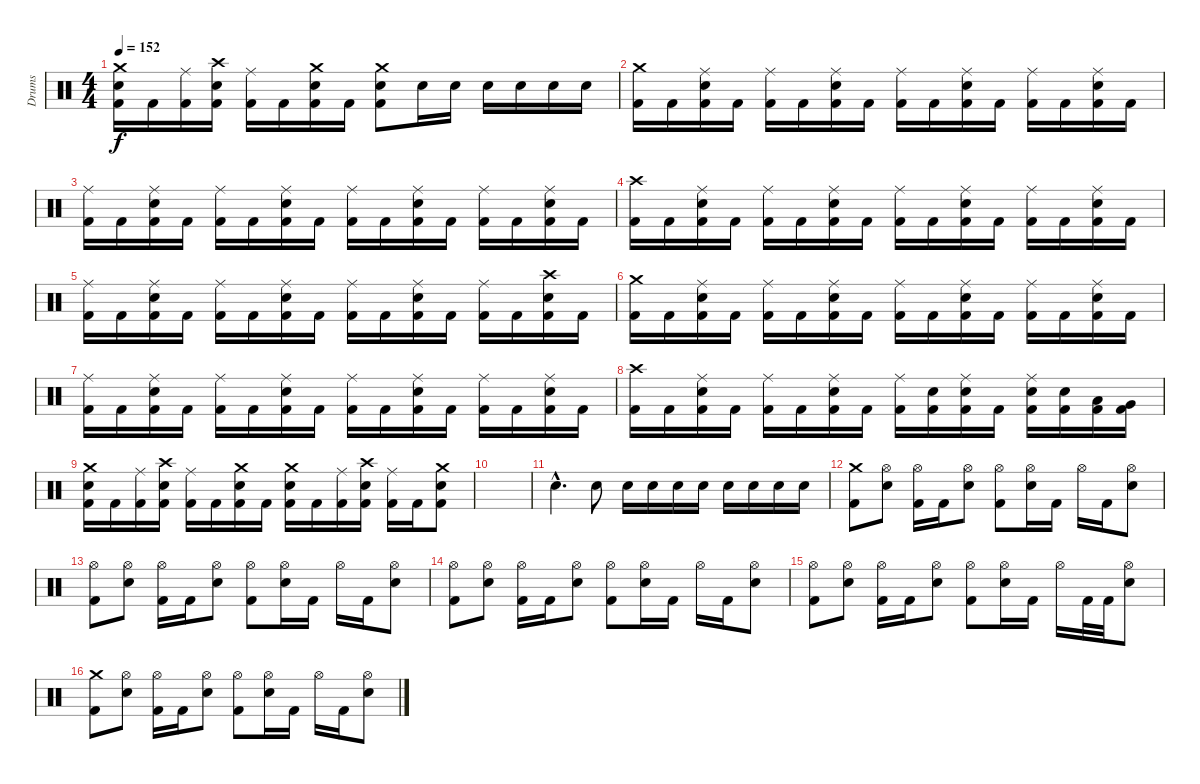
\track ("Drums" "Drums") {instrument percussion}
\staff {score}
\articulation defaults
\ts (4 4)
\tempo 152
\clef neutral
\ks c
("Crash medium (hit)" "Snare (hit) 2" "Kick (hit) 2").16{dy f} "Kick (hit) 2".16 ("Ride (middle)" "Kick (hit) 2").16 ("Crash high (hit)" "Snare (hit) 2" "Kick (hit) 2").16 ("Ride (middle)" "Kick (hit) 2").16 "Kick (hit) 2".16 ("Crash medium (hit)" "Snare (hit) 2" "Kick (hit) 2").16 "Kick (hit) 2".16 ("Crash medium (hit)" "Snare (hit) 2" "Kick (hit) 2").8 "Snare (hit) 2".16 "Snare (hit) 2".16 "Snare (hit) 2".16 "Snare (hit) 2".16 "Snare (hit) 2".16 "Snare (hit) 2".16 |
("Crash medium (hit)" "Kick (hit) 2").16 "Kick (hit) 2".16 ("Ride (middle)" "Snare (hit) 2" "Kick (hit) 2").16 "Kick (hit) 2".16 ("Ride (middle)" "Kick (hit) 2").16 "Kick (hit) 2".16 ("Ride (middle)" "Snare (hit) 2" "Kick (hit) 2").16 "Kick (hit) 2".16 ("Ride (middle)" "Kick (hit) 2").16 "Kick (hit) 2".16 ("Ride (middle)" "Snare (hit) 2" "Kick (hit) 2").16 "Kick (hit) 2".16 ("Ride (middle)" "Kick (hit) 2").16 "Kick (hit) 2".16 ("Ride (middle)" "Snare (hit) 2" "Kick (hit) 2").16 "Kick (hit) 2".16 |
("Ride (middle)" "Kick (hit) 2").16 "Kick (hit) 2".16 ("Ride (middle)" "Snare (hit) 2" "Kick (hit) 2").16 "Kick (hit) 2".16 ("Ride (middle)" "Kick (hit) 2").16 "Kick (hit) 2".16 ("Ride (middle)" "Snare (hit) 2" "Kick (hit) 2").16 "Kick (hit) 2".16 ("Ride (middle)" "Kick (hit) 2").16 "Kick (hit) 2".16 ("Ride (middle)" "Snare (hit) 2" "Kick (hit) 2").16 "Kick (hit) 2".16 ("Ride (middle)" "Kick (hit) 2").16 "Kick (hit) 2".16 ("Ride (middle)" "Snare (hit) 2" "Kick (hit) 2").16 "Kick (hit) 2".16 |
("Crash high (hit)" "Kick (hit) 2").16 "Kick (hit) 2".16 ("Ride (middle)" "Snare (hit) 2" "Kick (hit) 2").16 "Kick (hit) 2".16 ("Ride (middle)" "Kick (hit) 2").16 "Kick (hit) 2".16 ("Ride (middle)" "Snare (hit) 2" "Kick (hit) 2").16 "Kick (hit) 2".16 ("Ride (middle)" "Kick (hit) 2").16 "Kick (hit) 2".16 ("Ride (middle)" "Snare (hit) 2" "Kick (hit) 2").16 "Kick (hit) 2".16 ("Ride (middle)" "Kick (hit) 2").16 "Kick (hit) 2".16 ("Ride (middle)" "Snare (hit) 2" "Kick (hit) 2").16 "Kick (hit) 2".16 |
("Ride (middle)" "Kick (hit) 2").16 "Kick (hit) 2".16 ("Ride (middle)" "Snare (hit) 2" "Kick (hit) 2").16 "Kick (hit) 2".16 ("Ride (middle)" "Kick (hit) 2").16 "Kick (hit) 2".16 ("Ride (middle)" "Snare (hit) 2" "Kick (hit) 2").16 "Kick (hit) 2".16 ("Ride (middle)" "Kick (hit) 2").16 "Kick (hit) 2".16 ("Ride (middle)" "Snare (hit) 2" "Kick (hit) 2").16 "Kick (hit) 2".16 ("Ride (middle)" "Kick (hit) 2").16 "Kick (hit) 2".16 ("Crash high (hit)" "Snare (hit) 2" "Kick (hit) 2").16 "Kick (hit) 2".16 |
("Crash medium (hit)" "Kick (hit) 2").16 "Kick (hit) 2".16 ("Ride (middle)" "Snare (hit) 2" "Kick (hit) 2").16 "Kick (hit) 2".16 ("Ride (middle)" "Kick (hit) 2").16 "Kick (hit) 2".16 ("Ride (middle)" "Snare (hit) 2" "Kick (hit) 2").16 "Kick (hit) 2".16 ("Ride (middle)" "Kick (hit) 2").16 "Kick (hit) 2".16 ("Ride (middle)" "Snare (hit) 2" "Kick (hit) 2").16 "Kick (hit) 2".16 ("Ride (middle)" "Kick (hit) 2").16 "Kick (hit) 2".16 ("Ride (middle)" "Snare (hit) 2" "Kick (hit) 2").16 "Kick (hit) 2".16 |
("Ride (middle)" "Kick (hit) 2").16 "Kick (hit) 2".16 ("Ride (middle)" "Snare (hit) 2" "Kick (hit) 2").16 "Kick (hit) 2".16 ("Ride (middle)" "Kick (hit) 2").16 "Kick (hit) 2".16 ("Ride (middle)" "Snare (hit) 2" "Kick (hit) 2").16 "Kick (hit) 2".16 ("Ride (middle)" "Kick (hit) 2").16 "Kick (hit) 2".16 ("Ride (middle)" "Snare (hit) 2" "Kick (hit) 2").16 "Kick (hit) 2".16 ("Ride (middle)" "Kick (hit) 2").16 "Kick (hit) 2".16 ("Ride (middle)" "Snare (hit) 2" "Kick (hit) 2").16 "Kick (hit) 2".16 |
("Crash high (hit)" "Kick (hit) 2").16 "Kick (hit) 2".16 ("Ride (middle)" "Snare (hit) 2" "Kick (hit) 2").16 "Kick (hit) 2".16 ("Ride (middle)" "Kick (hit) 2").16 "Kick (hit) 2".16 ("Ride (middle)" "Snare (hit) 2" "Kick (hit) 2").16 "Kick (hit) 2".16 ("Ride (middle)" "Kick (hit) 2").16 ("Snare (hit) 2" "Kick (hit) 2").16 ("Ride (middle)" "Snare (hit) 2" "Kick (hit) 2").16 "Kick (hit) 2".16 ("Ride (middle)" "Snare (hit) 2" "Kick (hit) 2").16 ("Snare (hit) 2" "Kick (hit) 2").16 ("Low Tom (hit)" "Kick (hit) 2").16 ("Very Low Tom (hit)" "Kick (hit) 2").16 |
("Crash medium (hit)" "Snare (hit) 2" "Kick (hit) 2").16 "Kick (hit) 2".16 ("Ride (middle)" "Kick (hit) 2").16 ("Crash high (hit)" "Snare (hit) 2" "Kick (hit) 2").16 ("Ride (middle)" "Kick (hit) 2").16 "Kick (hit) 2".16 ("Crash medium (hit)" "Snare (hit) 2" "Kick (hit) 2").16 "Kick (hit) 2".16 ("Crash medium (hit)" "Snare (hit) 2" "Kick (hit) 2").16 "Kick (hit) 2".16 ("Ride (middle)" "Kick (hit) 2").16 ("Crash high (hit)" "Snare (hit) 2" "Kick (hit) 2").16 ("Ride (middle)" "Kick (hit) 2").16 "Kick (hit) 2".16 ("Crash medium (hit)" "Snare (hit) 2" "Kick (hit) 2").8 |
|
"Snare (hit) 2"{hac}.4{d} "Snare (hit) 2".8 "Snare (hit) 2".16 "Snare (hit) 2".16 "Snare (hit) 2".16 "Snare (hit) 2".16 "Snare (hit) 2".16 "Snare (hit) 2".16 "Snare (hit) 2".16 "Snare (hit) 2".16 |
("Crash medium (hit)" "Kick (hit) 2").8 ("Hi-Hat (open)" "Snare (hit) 2").8 ("Hi-Hat (open)" "Kick (hit) 2").16 "Kick (hit) 2".16 ("Hi-Hat (open)" "Snare (hit) 2").8 ("Hi-Hat (open)" "Kick (hit) 2").8 ("Hi-Hat (open)" "Snare (hit) 2").16 "Kick (hit) 2".16 "Hi-Hat (open)".16 "Kick (hit) 2".16 ("Hi-Hat (open)" "Snare (hit) 2").8 |
("Hi-Hat (open)" "Kick (hit) 2").8 ("Hi-Hat (open)" "Snare (hit) 2").8 ("Hi-Hat (open)" "Kick (hit) 2").16 "Kick (hit) 2".16 ("Hi-Hat (open)" "Snare (hit) 2").8 ("Hi-Hat (open)" "Kick (hit) 2").8 ("Hi-Hat (open)" "Snare (hit) 2").16 "Kick (hit) 2".16 "Hi-Hat (open)".16 "Kick (hit) 2".16 ("Hi-Hat (open)" "Snare (hit) 2").8 |
("Hi-Hat (open)" "Kick (hit) 2").8 ("Hi-Hat (open)" "Snare (hit) 2").8 ("Hi-Hat (open)" "Kick (hit) 2").16 "Kick (hit) 2".16 ("Hi-Hat (open)" "Snare (hit) 2").8 ("Hi-Hat (open)" "Kick (hit) 2").8 ("Hi-Hat (open)" "Snare (hit) 2").16 "Kick (hit) 2".16 "Hi-Hat (open)".16 "Kick (hit) 2".16 ("Hi-Hat (open)" "Snare (hit) 2").8 |
("Hi-Hat (open)" "Kick (hit) 2").8 ("Hi-Hat (open)" "Snare (hit) 2").8 ("Hi-Hat (open)" "Kick (hit) 2").16 "Kick (hit) 2".16 ("Hi-Hat (open)" "Snare (hit) 2").8 ("Hi-Hat (open)" "Kick (hit) 2").8 ("Hi-Hat (open)" "Snare (hit) 2").16 "Kick (hit) 2".16 "Hi-Hat (open)".16 "Kick (hit) 2".32 "Kick (hit) 2".32 ("Hi-Hat (open)" "Snare (hit) 2").8 |
("Crash medium (hit)" "Kick (hit) 2").8 ("Hi-Hat (open)" "Snare (hit) 2").8 ("Hi-Hat (open)" "Kick (hit) 2").16 "Kick (hit) 2".16 ("Hi-Hat (open)" "Snare (hit) 2").8 ("Hi-Hat (open)" "Kick (hit) 2").8 ("Hi-Hat (open)" "Snare (hit) 2").16 "Kick (hit) 2".16 "Hi-Hat (open)".16 "Kick (hit) 2".16 ("Hi-Hat (open)" "Snare (hit) 2").8
